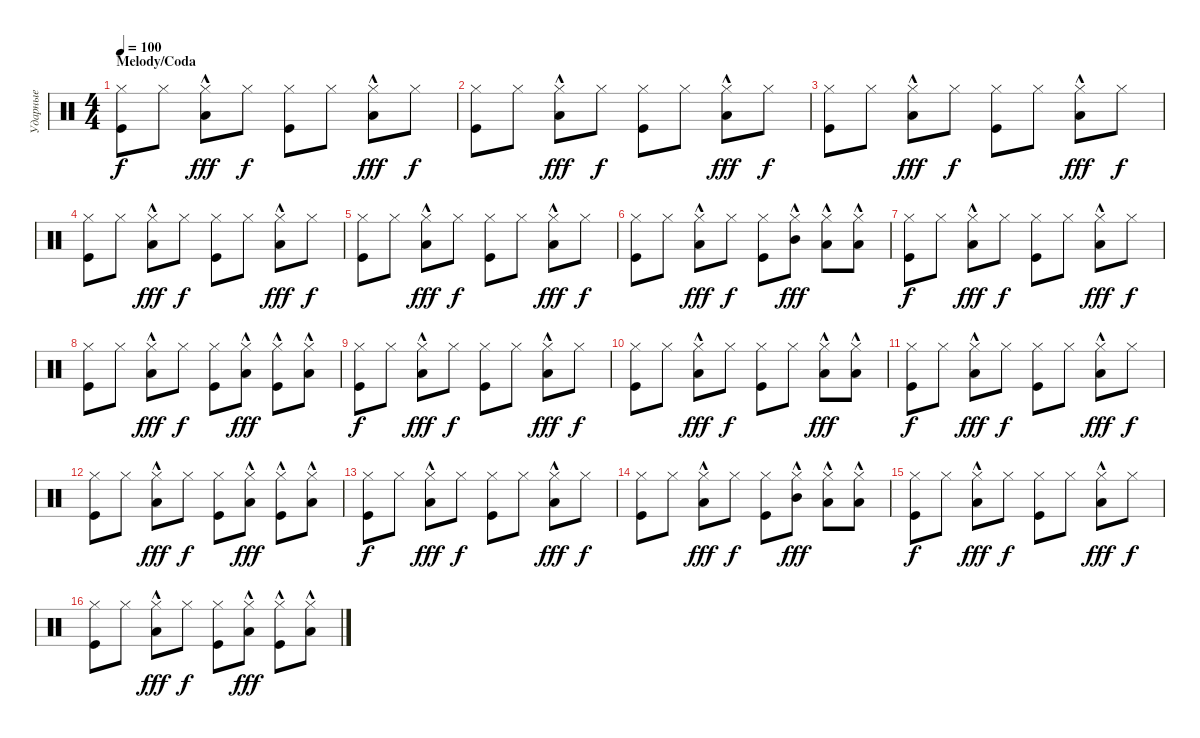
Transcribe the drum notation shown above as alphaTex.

\track ("Ударные" "Ударные") {instrument percussion}
\staff {score}
\articulation defaults
\ts (4 4)
\section ("" "Melody/Coda")
\tempo 100
\clef neutral
\ks c
("Hi-Hat (closed)" "Kick (hit)").8{dy f} "Hi-Hat (closed)".8 ("Hi-Hat (closed)" "Low Tom (hit)"{hac}).8{dy fff} "Hi-Hat (closed)".8{dy f} ("Hi-Hat (closed)" "Kick (hit)").8 "Hi-Hat (closed)".8 ("Hi-Hat (closed)" "Low Tom (hit)"{hac}).8{dy fff} "Hi-Hat (closed)".8{dy f} |
("Hi-Hat (closed)" "Kick (hit)").8 "Hi-Hat (closed)".8 ("Hi-Hat (closed)" "Low Tom (hit)"{hac}).8{dy fff} "Hi-Hat (closed)".8{dy f} ("Hi-Hat (closed)" "Kick (hit)").8 "Hi-Hat (closed)".8 ("Hi-Hat (closed)" "Low Tom (hit)"{hac}).8{dy fff} "Hi-Hat (closed)".8{dy f} |
("Hi-Hat (closed)" "Kick (hit)").8 "Hi-Hat (closed)".8 ("Hi-Hat (closed)" "Low Tom (hit)"{hac}).8{dy fff} "Hi-Hat (closed)".8{dy f} ("Hi-Hat (closed)" "Kick (hit)").8 "Hi-Hat (closed)".8 ("Hi-Hat (closed)" "Low Tom (hit)"{hac}).8{dy fff} "Hi-Hat (closed)".8{dy f} |
("Hi-Hat (closed)" "Kick (hit)").8 "Hi-Hat (closed)".8 ("Hi-Hat (closed)" "Low Tom (hit)"{hac}).8{dy fff} "Hi-Hat (closed)".8{dy f} ("Hi-Hat (closed)" "Kick (hit)").8 "Hi-Hat (closed)".8 ("Hi-Hat (closed)" "Low Tom (hit)"{hac}).8{dy fff} "Hi-Hat (closed)".8{dy f} |
("Hi-Hat (closed)" "Kick (hit)").8 "Hi-Hat (closed)".8 ("Hi-Hat (closed)" "Low Tom (hit)"{hac}).8{dy fff} "Hi-Hat (closed)".8{dy f} ("Hi-Hat (closed)" "Kick (hit)").8 "Hi-Hat (closed)".8 ("Hi-Hat (closed)" "Low Tom (hit)"{hac}).8{dy fff} "Hi-Hat (closed)".8{dy f} |
("Hi-Hat (closed)" "Kick (hit)").8 "Hi-Hat (closed)".8 ("Hi-Hat (closed)" "Low Tom (hit)"{hac}).8{dy fff} "Hi-Hat (closed)".8{dy f} ("Hi-Hat (closed)" "Kick (hit)").8 ("Hi-Hat (closed)" "Mid Tom (hit)"{hac}).8{dy fff} ("Hi-Hat (closed)" "Low Tom (hit)"{hac}).8 ("Hi-Hat (closed)" "Low Tom (hit)"{hac}).8 |
("Hi-Hat (closed)" "Kick (hit)").8{dy f} "Hi-Hat (closed)".8 ("Hi-Hat (closed)" "Low Tom (hit)"{hac}).8{dy fff} "Hi-Hat (closed)".8{dy f} ("Hi-Hat (closed)" "Kick (hit)").8 "Hi-Hat (closed)".8 ("Hi-Hat (closed)" "Low Tom (hit)"{hac}).8{dy fff} "Hi-Hat (closed)".8{dy f} |
("Hi-Hat (closed)" "Kick (hit)").8 "Hi-Hat (closed)".8 ("Hi-Hat (closed)" "Low Tom (hit)"{hac}).8{dy fff} "Hi-Hat (closed)".8{dy f} ("Hi-Hat (closed)" "Kick (hit)").8 ("Hi-Hat (closed)" "Low Tom (hit)"{hac}).8{dy fff} ("Hi-Hat (closed)" "Kick (hit)"{hac}).8 ("Hi-Hat (closed)" "Low Tom (hit)"{hac}).8 |
("Hi-Hat (closed)" "Kick (hit)").8{dy f} "Hi-Hat (closed)".8 ("Hi-Hat (closed)" "Low Tom (hit)"{hac}).8{dy fff} "Hi-Hat (closed)".8{dy f} ("Hi-Hat (closed)" "Kick (hit)").8 "Hi-Hat (closed)".8 ("Hi-Hat (closed)" "Low Tom (hit)"{hac}).8{dy fff} "Hi-Hat (closed)".8{dy f} |
("Hi-Hat (closed)" "Kick (hit)").8 "Hi-Hat (closed)".8 ("Hi-Hat (closed)" "Low Tom (hit)"{hac}).8{dy fff} "Hi-Hat (closed)".8{dy f} ("Hi-Hat (closed)" "Kick (hit)").8 "Hi-Hat (closed)".8 ("Hi-Hat (closed)" "Low Tom (hit)"{hac}).8{dy fff} ("Hi-Hat (closed)" "Low Tom (hit)"{hac}).8 |
("Hi-Hat (closed)" "Kick (hit)").8{dy f} "Hi-Hat (closed)".8 ("Hi-Hat (closed)" "Low Tom (hit)"{hac}).8{dy fff} "Hi-Hat (closed)".8{dy f} ("Hi-Hat (closed)" "Kick (hit)").8 "Hi-Hat (closed)".8 ("Hi-Hat (closed)" "Low Tom (hit)"{hac}).8{dy fff} "Hi-Hat (closed)".8{dy f} |
("Hi-Hat (closed)" "Kick (hit)").8 "Hi-Hat (closed)".8 ("Hi-Hat (closed)" "Low Tom (hit)"{hac}).8{dy fff} "Hi-Hat (closed)".8{dy f} ("Hi-Hat (closed)" "Kick (hit)").8 ("Hi-Hat (closed)" "Low Tom (hit)"{hac}).8{dy fff} ("Hi-Hat (closed)" "Kick (hit)"{hac}).8 ("Hi-Hat (closed)" "Low Tom (hit)"{hac}).8 |
("Hi-Hat (closed)" "Kick (hit)").8{dy f} "Hi-Hat (closed)".8 ("Hi-Hat (closed)" "Low Tom (hit)"{hac}).8{dy fff} "Hi-Hat (closed)".8{dy f} ("Hi-Hat (closed)" "Kick (hit)").8 "Hi-Hat (closed)".8 ("Hi-Hat (closed)" "Low Tom (hit)"{hac}).8{dy fff} "Hi-Hat (closed)".8{dy f} |
("Hi-Hat (closed)" "Kick (hit)").8 "Hi-Hat (closed)".8 ("Hi-Hat (closed)" "Low Tom (hit)"{hac}).8{dy fff} "Hi-Hat (closed)".8{dy f} ("Hi-Hat (closed)" "Kick (hit)").8 ("Hi-Hat (closed)" "Mid Tom (hit)"{hac}).8{dy fff} ("Hi-Hat (closed)" "Low Tom (hit)"{hac}).8 ("Hi-Hat (closed)" "Low Tom (hit)"{hac}).8 |
("Hi-Hat (closed)" "Kick (hit)").8{dy f} "Hi-Hat (closed)".8 ("Hi-Hat (closed)" "Low Tom (hit)"{hac}).8{dy fff} "Hi-Hat (closed)".8{dy f} ("Hi-Hat (closed)" "Kick (hit)").8 "Hi-Hat (closed)".8 ("Hi-Hat (closed)" "Low Tom (hit)"{hac}).8{dy fff} "Hi-Hat (closed)".8{dy f} |
("Hi-Hat (closed)" "Kick (hit)").8 "Hi-Hat (closed)".8 ("Hi-Hat (closed)" "Low Tom (hit)"{hac}).8{dy fff} "Hi-Hat (closed)".8{dy f} ("Hi-Hat (closed)" "Kick (hit)").8 ("Hi-Hat (closed)" "Low Tom (hit)"{hac}).8{dy fff} ("Hi-Hat (closed)" "Kick (hit)"{hac}).8 ("Hi-Hat (closed)" "Low Tom (hit)"{hac}).8
